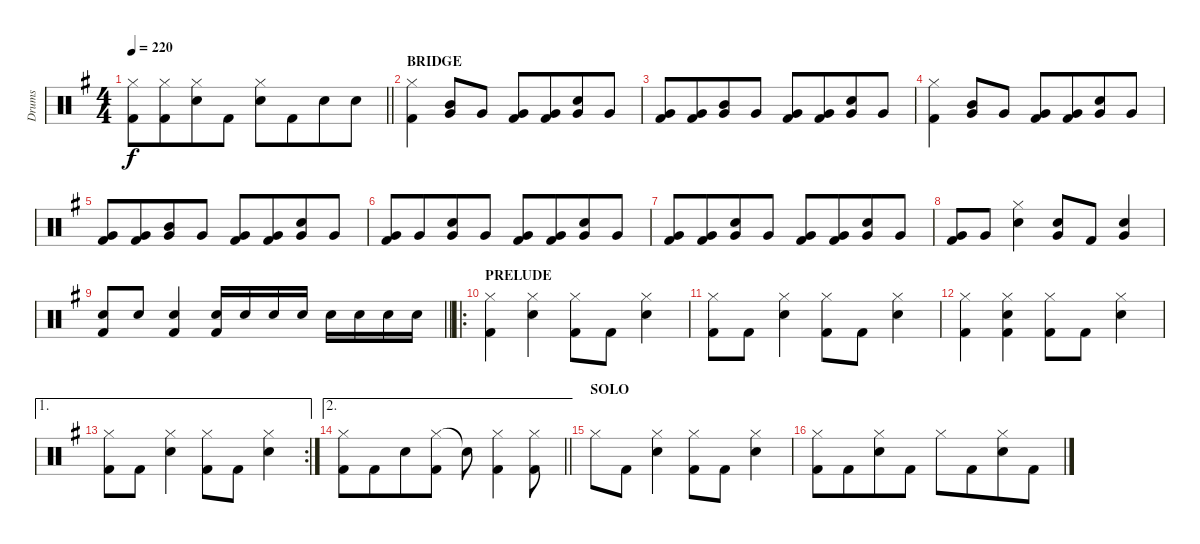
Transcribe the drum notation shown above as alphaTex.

\track ("Drums" "Drums") {instrument percussion}
\staff {score}
\articulation defaults
\ts (4 4)
\tempo 220
\clef neutral
\barLineRight lightlight
\ks eminor
("Hi-Hat (closed)" "Kick (hit) 2").8{dy f} ("Hi-Hat (closed)" "Kick (hit) 2").8{beam merge} ("Hi-Hat (closed)" "Electric Snare (hit)").8 "Kick (hit) 2".8 ("Hi-Hat (closed)" "Electric Snare (hit)").8 "Kick (hit) 2".8{beam merge} "Electric Snare (hit)".8 "Electric Snare (hit)".8 |
\section ("" "BRIDGE")
("Hi-Hat (closed)" "Kick (hit) 2").4 ("Mid Tom (hit)" "Very Low Tom (hit)").8 "Very Low Tom (hit)".8 ("Very Low Tom (hit)" "Kick (hit) 2").8 ("Very Low Tom (hit)" "Kick (hit) 2").8{beam merge} ("Very Low Tom (hit)" "Electric Snare (hit)").8 "Very Low Tom (hit)".8 |
("Very Low Tom (hit)" "Kick (hit) 2").8 ("Very Low Tom (hit)" "Kick (hit) 2").8{beam merge} ("Mid Tom (hit)" "Very Low Tom (hit)").8 "Very Low Tom (hit)".8 ("Very Low Tom (hit)" "Kick (hit) 2").8 ("Very Low Tom (hit)" "Kick (hit) 2").8{beam merge} ("Very Low Tom (hit)" "Electric Snare (hit)").8 "Very Low Tom (hit)".8 |
("Hi-Hat (closed)" "Kick (hit) 2").4 ("Mid Tom (hit)" "Very Low Tom (hit)").8 "Very Low Tom (hit)".8 ("Very Low Tom (hit)" "Kick (hit) 2").8 ("Very Low Tom (hit)" "Kick (hit) 2").8{beam merge} ("Very Low Tom (hit)" "Electric Snare (hit)").8 "Very Low Tom (hit)".8 |
("Very Low Tom (hit)" "Kick (hit) 2").8 ("Very Low Tom (hit)" "Kick (hit) 2").8{beam merge} ("Mid Tom (hit)" "Very Low Tom (hit)").8 "Very Low Tom (hit)".8 ("Very Low Tom (hit)" "Kick (hit) 2").8 ("Very Low Tom (hit)" "Kick (hit) 2").8{beam merge} ("Very Low Tom (hit)" "Electric Snare (hit)").8 "Very Low Tom (hit)".8 |
("Very Low Tom (hit)" "Kick (hit) 2").8 "Very Low Tom (hit)".8{beam merge} ("Very Low Tom (hit)" "Electric Snare (hit)").8 "Very Low Tom (hit)".8 ("Very Low Tom (hit)" "Kick (hit) 2").8 ("Very Low Tom (hit)" "Kick (hit) 2").8{beam merge} ("Very Low Tom (hit)" "Electric Snare (hit)").8 "Very Low Tom (hit)".8 |
("Very Low Tom (hit)" "Kick (hit) 2").8 ("Very Low Tom (hit)" "Kick (hit) 2").8{beam merge} ("Very Low Tom (hit)" "Electric Snare (hit)").8 "Very Low Tom (hit)".8 ("Very Low Tom (hit)" "Kick (hit) 2").8 ("Very Low Tom (hit)" "Kick (hit) 2").8{beam merge} ("Very Low Tom (hit)" "Electric Snare (hit)").8 "Very Low Tom (hit)".8 |
("Very Low Tom (hit)" "Kick (hit) 2").8 "Very Low Tom (hit)".8 ("Hi-Hat (closed)" "Electric Snare (hit)").4 ("Very Low Tom (hit)" "Electric Snare (hit)").8 "Kick (hit) 2".8 ("Very Low Tom (hit)" "Electric Snare (hit)").4 |
\barLineRight lightlight
("Electric Snare (hit)" "Kick (hit) 2").8 "Electric Snare (hit)".8 ("Electric Snare (hit)" "Kick (hit) 2").4 ("Electric Snare (hit)" "Kick (hit) 2").16 "Electric Snare (hit)".16 "Electric Snare (hit)".16 "Electric Snare (hit)".16 "Electric Snare (hit)".16 "Electric Snare (hit)".16 "Electric Snare (hit)".16 "Electric Snare (hit)".16 |
\ro
\section ("" "PRELUDE")
("Hi-Hat (closed)" "Kick (hit) 2").4 ("Hi-Hat (closed)" "Electric Snare (hit)").4{beam merge} ("Hi-Hat (closed)" "Kick (hit) 2").8 "Kick (hit) 2".8 ("Hi-Hat (closed)" "Electric Snare (hit)").4 |
("Hi-Hat (closed)" "Kick (hit) 2").8 "Kick (hit) 2".8 ("Hi-Hat (closed)" "Electric Snare (hit)").4{beam merge} ("Hi-Hat (closed)" "Kick (hit) 2").8 "Kick (hit) 2".8 ("Hi-Hat (closed)" "Electric Snare (hit)").4 |
("Hi-Hat (closed)" "Kick (hit) 2").4 ("Hi-Hat (closed)" "Electric Snare (hit)" "Kick (hit) 2").4 ("Hi-Hat (closed)" "Kick (hit) 2").8 "Kick (hit) 2".8 ("Hi-Hat (closed)" "Electric Snare (hit)").4 |
\ae 1
\rc 2
("Hi-Hat (closed)" "Kick (hit) 2").8 "Kick (hit) 2".8 ("Hi-Hat (closed)" "Electric Snare (hit)").4{beam merge} ("Hi-Hat (closed)" "Kick (hit) 2").8 "Kick (hit) 2".8 ("Hi-Hat (closed)" "Electric Snare (hit)").4 |
\ae 2
\barLineRight lightlight
("Hi-Hat (closed)" "Kick (hit) 2").8 "Kick (hit) 2".8{beam merge} "Electric Snare (hit)".8 ("Hi-Hat (closed)" "Kick (hit) 2").8 "Snare (hit)"{t}.8 ("Hi-Hat (closed)" "Kick (hit) 2").4 ("Hi-Hat (closed)" "Kick (hit) 2").8 |
\section ("" "SOLO")
"Hi-Hat (closed)".8 "Kick (hit) 2".8 ("Hi-Hat (closed)" "Electric Snare (hit)").4{beam merge} ("Hi-Hat (closed)" "Kick (hit) 2").8 "Kick (hit) 2".8 ("Hi-Hat (closed)" "Electric Snare (hit)").4 |
("Hi-Hat (closed)" "Kick (hit) 2").8 "Kick (hit) 2".8{beam merge} ("Hi-Hat (closed)" "Electric Snare (hit)").8 "Kick (hit) 2".8 "Hi-Hat (closed)".8 "Kick (hit) 2".8{beam merge} ("Hi-Hat (closed)" "Electric Snare (hit)").8 "Kick (hit) 2".8
